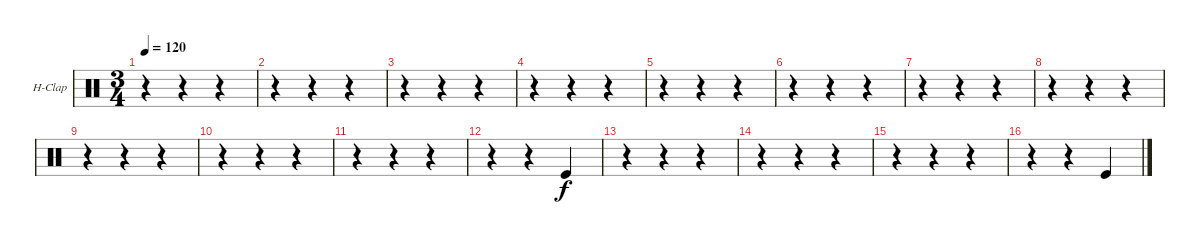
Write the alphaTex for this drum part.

\bracketExtendMode groupsimilarinstruments
\firstSystemTrackNameOrientation horizontal
\otherSystemsTrackNameOrientation horizontal
\track ("Hand Clap" "H-Clap") {instrument percussion}
\staff {score}
\articulation defaults
\ts (3 4)
\tempo 120
\clef neutral
\ks c
r.4{dy f} r.4 r.4 |
r.4 r.4 r.4 |
r.4 r.4 r.4 |
r.4 r.4 r.4 |
r.4 r.4 r.4 |
r.4 r.4 r.4 |
r.4 r.4 r.4 |
r.4 r.4 r.4 |
r.4 r.4 r.4 |
r.4 r.4 r.4 |
r.4 r.4 r.4 |
r.4 r.4 "Kick (hit)".4 |
r.4 r.4 r.4 |
r.4 r.4 r.4 |
r.4 r.4 r.4 |
r.4 r.4 "Kick (hit)".4
